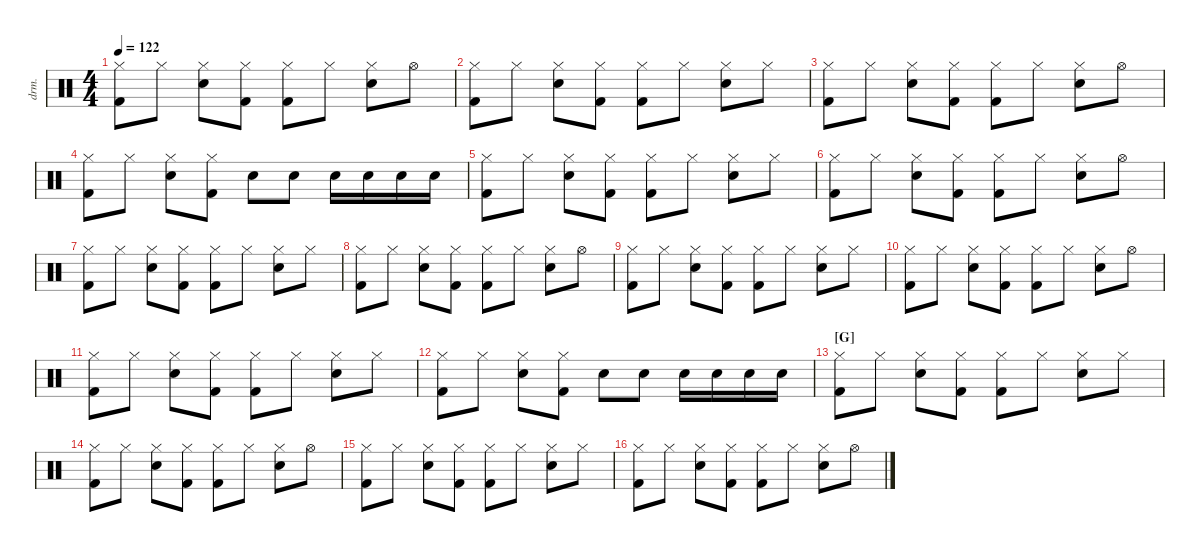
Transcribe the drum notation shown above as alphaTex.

\defaultSystemsLayout 4
\hideDynamics
\bracketExtendMode nobrackets
\track ("Drumkit" "drm.") {defaultSystemsLayout 4 instrument percussion}
\staff {score}
\articulation defaults
\ts (4 4)
\tempo 122
\clef neutral
\ks c
("Hi-Hat (closed)" "Kick (hit) 2").8{dy f beam Down} "Hi-Hat (closed)".8{beam Down} ("Hi-Hat (closed)" "Snare (hit) 2").8{beam Down} ("Hi-Hat (closed)" "Kick (hit) 2").8{beam Down} ("Hi-Hat (closed)" "Kick (hit) 2").8{beam Down} "Hi-Hat (closed)".8{beam Down} ("Hi-Hat (closed)" "Snare (hit) 2").8{beam Down} "Hi-Hat (open)".8{beam Down} |
("Hi-Hat (closed)" "Kick (hit) 2").8{beam Down} "Hi-Hat (closed)".8{beam Down} ("Hi-Hat (closed)" "Snare (hit) 2").8{beam Down} ("Hi-Hat (closed)" "Kick (hit) 2").8{beam Down} ("Hi-Hat (closed)" "Kick (hit) 2").8{beam Down} "Hi-Hat (closed)".8{beam Down} ("Hi-Hat (closed)" "Snare (hit) 2").8{beam Down} "Hi-Hat (closed)".8{beam Down} |
("Hi-Hat (closed)" "Kick (hit) 2").8{beam Down} "Hi-Hat (closed)".8{beam Down} ("Hi-Hat (closed)" "Snare (hit) 2").8{beam Down} ("Hi-Hat (closed)" "Kick (hit) 2").8{beam Down} ("Hi-Hat (closed)" "Kick (hit) 2").8{beam Down} "Hi-Hat (closed)".8{beam Down} ("Hi-Hat (closed)" "Snare (hit) 2").8{beam Down} "Hi-Hat (open)".8{beam Down} |
("Hi-Hat (closed)" "Kick (hit) 2").8{beam Down} "Hi-Hat (closed)".8{beam Down} ("Hi-Hat (closed)" "Snare (hit) 2").8{beam Down} ("Hi-Hat (closed)" "Kick (hit) 2").8{beam Down} "Snare (hit) 2".8{beam Down} "Snare (hit) 2".8{beam Down} "Snare (hit) 2".16{beam Down} "Snare (hit) 2".16{beam Down} "Snare (hit) 2".16{beam Down} "Snare (hit) 2".16{beam Down} |
("Hi-Hat (closed)" "Kick (hit) 2").8{beam Down} "Hi-Hat (closed)".8{beam Down} ("Hi-Hat (closed)" "Snare (hit) 2").8{beam Down} ("Hi-Hat (closed)" "Kick (hit) 2").8{beam Down} ("Hi-Hat (closed)" "Kick (hit) 2").8{beam Down} "Hi-Hat (closed)".8{beam Down} ("Hi-Hat (closed)" "Snare (hit) 2").8{beam Down} "Hi-Hat (closed)".8{beam Down} |
("Hi-Hat (closed)" "Kick (hit) 2").8{beam Down} "Hi-Hat (closed)".8{beam Down} ("Hi-Hat (closed)" "Snare (hit) 2").8{beam Down} ("Hi-Hat (closed)" "Kick (hit) 2").8{beam Down} ("Hi-Hat (closed)" "Kick (hit) 2").8{beam Down} "Hi-Hat (closed)".8{beam Down} ("Hi-Hat (closed)" "Snare (hit) 2").8{beam Down} "Hi-Hat (open)".8{beam Down} |
("Hi-Hat (closed)" "Kick (hit) 2").8{beam Down} "Hi-Hat (closed)".8{beam Down} ("Hi-Hat (closed)" "Snare (hit) 2").8{beam Down} ("Hi-Hat (closed)" "Kick (hit) 2").8{beam Down} ("Hi-Hat (closed)" "Kick (hit) 2").8{beam Down} "Hi-Hat (closed)".8{beam Down} ("Hi-Hat (closed)" "Snare (hit) 2").8{beam Down} "Hi-Hat (closed)".8{beam Down} |
("Hi-Hat (closed)" "Kick (hit) 2").8{beam Down} "Hi-Hat (closed)".8{beam Down} ("Hi-Hat (closed)" "Snare (hit) 2").8{beam Down} ("Hi-Hat (closed)" "Kick (hit) 2").8{beam Down} ("Hi-Hat (closed)" "Kick (hit) 2").8{beam Down} "Hi-Hat (closed)".8{beam Down} ("Hi-Hat (closed)" "Snare (hit) 2").8{beam Down} "Hi-Hat (open)".8{beam Down} |
("Hi-Hat (closed)" "Kick (hit) 2").8{beam Down} "Hi-Hat (closed)".8{beam Down} ("Hi-Hat (closed)" "Snare (hit) 2").8{beam Down} ("Hi-Hat (closed)" "Kick (hit) 2").8{beam Down} ("Hi-Hat (closed)" "Kick (hit) 2").8{beam Down} "Hi-Hat (closed)".8{beam Down} ("Hi-Hat (closed)" "Snare (hit) 2").8{beam Down} "Hi-Hat (closed)".8{beam Down} |
("Hi-Hat (closed)" "Kick (hit) 2").8{beam Down} "Hi-Hat (closed)".8{beam Down} ("Hi-Hat (closed)" "Snare (hit) 2").8{beam Down} ("Hi-Hat (closed)" "Kick (hit) 2").8{beam Down} ("Hi-Hat (closed)" "Kick (hit) 2").8{beam Down} "Hi-Hat (closed)".8{beam Down} ("Hi-Hat (closed)" "Snare (hit) 2").8{beam Down} "Hi-Hat (open)".8{beam Down} |
("Hi-Hat (closed)" "Kick (hit) 2").8{beam Down} "Hi-Hat (closed)".8{beam Down} ("Hi-Hat (closed)" "Snare (hit) 2").8{beam Down} ("Hi-Hat (closed)" "Kick (hit) 2").8{beam Down} ("Hi-Hat (closed)" "Kick (hit) 2").8{beam Down} "Hi-Hat (closed)".8{beam Down} ("Hi-Hat (closed)" "Snare (hit) 2").8{beam Down} "Hi-Hat (closed)".8{beam Down} |
("Hi-Hat (closed)" "Kick (hit) 2").8{beam Down} "Hi-Hat (closed)".8{beam Down} ("Hi-Hat (closed)" "Snare (hit) 2").8{beam Down} ("Hi-Hat (closed)" "Kick (hit) 2").8{beam Down} "Snare (hit) 2".8{beam Down} "Snare (hit) 2".8{beam Down} "Snare (hit) 2".16{beam Down} "Snare (hit) 2".16{beam Down} "Snare (hit) 2".16{beam Down} "Snare (hit) 2".16{beam Down} |
\section ("G" "")
("Hi-Hat (closed)" "Kick (hit) 2").8{beam Down} "Hi-Hat (closed)".8{beam Down} ("Hi-Hat (closed)" "Snare (hit) 2").8{beam Down} ("Hi-Hat (closed)" "Kick (hit) 2").8{beam Down} ("Hi-Hat (closed)" "Kick (hit) 2").8{beam Down} "Hi-Hat (closed)".8{beam Down} ("Hi-Hat (closed)" "Snare (hit) 2").8{beam Down} "Hi-Hat (closed)".8{beam Down} |
("Hi-Hat (closed)" "Kick (hit) 2").8{beam Down} "Hi-Hat (closed)".8{beam Down} ("Hi-Hat (closed)" "Snare (hit) 2").8{beam Down} ("Hi-Hat (closed)" "Kick (hit) 2").8{beam Down} ("Hi-Hat (closed)" "Kick (hit) 2").8{beam Down} "Hi-Hat (closed)".8{beam Down} ("Hi-Hat (closed)" "Snare (hit) 2").8{beam Down} "Hi-Hat (open)".8{beam Down} |
("Hi-Hat (closed)" "Kick (hit) 2").8{beam Down} "Hi-Hat (closed)".8{beam Down} ("Hi-Hat (closed)" "Snare (hit) 2").8{beam Down} ("Hi-Hat (closed)" "Kick (hit) 2").8{beam Down} ("Hi-Hat (closed)" "Kick (hit) 2").8{beam Down} "Hi-Hat (closed)".8{beam Down} ("Hi-Hat (closed)" "Snare (hit) 2").8{beam Down} "Hi-Hat (closed)".8{beam Down} |
("Hi-Hat (closed)" "Kick (hit) 2").8{beam Down} "Hi-Hat (closed)".8{beam Down} ("Hi-Hat (closed)" "Snare (hit) 2").8{beam Down} ("Hi-Hat (closed)" "Kick (hit) 2").8{beam Down} ("Hi-Hat (closed)" "Kick (hit) 2").8{beam Down} "Hi-Hat (closed)".8{beam Down} ("Hi-Hat (closed)" "Snare (hit) 2").8{beam Down} "Hi-Hat (open)".8{beam Down}
